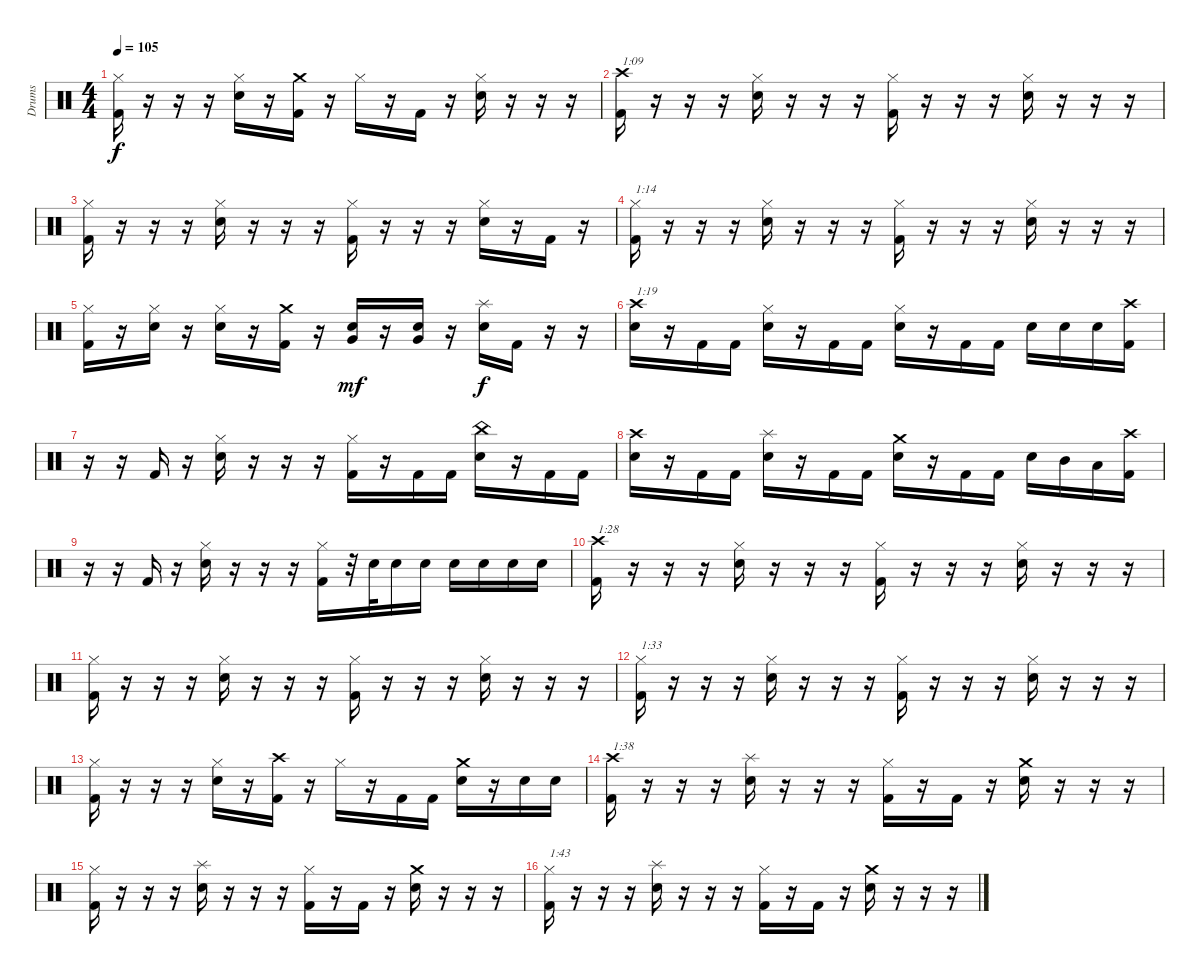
\track ("Drums" "Drums") {instrument percussion}
\staff {score}
\articulation defaults
\ts (4 4)
\tempo 105
\clef neutral
\ks c
("Hi-Hat (closed)" "Kick (hit) 2").16{dy f} r.16 r.16 r.16 ("Hi-Hat (closed)" "Electric Snare (hit)").16 r.16 ("Crash medium (hit)" "Kick (hit) 2").16 r.16 "Hi-Hat (closed)".16 r.16 "Kick (hit) 2".16 r.16 ("Hi-Hat (closed)" "Electric Snare (hit)").16 r.16 r.16 r.16 |
("Crash high (hit)" "Kick (hit) 2").16{txt "1:09"} r.16 r.16 r.16 ("Hi-Hat (closed)" "Electric Snare (hit)").16 r.16 r.16 r.16 ("Hi-Hat (closed)" "Kick (hit) 2").16 r.16 r.16 r.16 ("Hi-Hat (closed)" "Electric Snare (hit)").16 r.16 r.16 r.16 |
("Hi-Hat (closed)" "Kick (hit) 2").16 r.16 r.16 r.16 ("Hi-Hat (closed)" "Electric Snare (hit)").16 r.16 r.16 r.16 ("Hi-Hat (closed)" "Kick (hit) 2").16 r.16 r.16 r.16 ("Hi-Hat (closed)" "Electric Snare (hit)").16 r.16 "Kick (hit) 2".16 r.16 |
("Hi-Hat (closed)" "Kick (hit) 2").16{txt "1:14"} r.16 r.16 r.16 ("Hi-Hat (closed)" "Electric Snare (hit)").16 r.16 r.16 r.16 ("Hi-Hat (closed)" "Kick (hit) 2").16 r.16 r.16 r.16 ("Hi-Hat (closed)" "Electric Snare (hit)").16 r.16 r.16 r.16 |
("Hi-Hat (closed)" "Kick (hit) 2").16 r.16 ("Hi-Hat (closed)" "Electric Snare (hit)").16 r.16 ("Hi-Hat (closed)" "Electric Snare (hit)").16 r.16 ("Crash medium (hit)" "Kick (hit) 2").16 r.16 ("Very Low Tom (hit)" "Electric Snare (hit)").16{dy mf} r.16 ("Very Low Tom (hit)" "Electric Snare (hit)").16 r.16 ("Splash (hit)" "Electric Snare (hit)").16{dy f} "Kick (hit) 2".16 r.16 r.16 |
("Crash high (hit)" "Electric Snare (hit)").16{txt "1:19"} r.16 "Kick (hit) 2".16 "Kick (hit) 2".16 ("Hi-Hat (closed)" "Electric Snare (hit)").16 r.16 "Kick (hit) 2".16 "Kick (hit) 2".16 ("Hi-Hat (closed)" "Electric Snare (hit)").16 r.16 "Kick (hit) 2".16 "Kick (hit) 2".16 "Electric Snare (hit)".16 "Electric Snare (hit)".16 "Electric Snare (hit)".16 ("Crash high (hit)" "Kick (hit) 2").16 |
r.16 r.16 "Kick (hit) 2".16 r.16 ("Hi-Hat (closed)" "Electric Snare (hit)").16 r.16 r.16 r.16 ("Hi-Hat (closed)" "Kick (hit) 2").16 r.16 "Kick (hit) 2".16 "Kick (hit) 2".16 ("China (hit)" "Electric Snare (hit)").16 r.16 "Kick (hit) 2".16 "Kick (hit) 2".16 |
("Crash high (hit)" "Electric Snare (hit)").16 r.16 "Kick (hit) 2".16 "Kick (hit) 2".16 ("Splash (hit)" "Electric Snare (hit)").16 r.16 "Kick (hit) 2".16 "Kick (hit) 2".16 ("Crash medium (hit)" "Electric Snare (hit)").16 r.16 "Kick (hit) 2".16 "Kick (hit) 2".16 "Electric Snare (hit)".16 "Mid Tom (hit)".16 "Low Tom (hit)".16 ("Crash high (hit)" "Kick (hit) 2").16 |
r.16 r.16 "Kick (hit) 2".16 r.16 ("Hi-Hat (closed)" "Electric Snare (hit)").16 r.16 r.16 r.16 ("Hi-Hat (closed)" "Kick (hit) 2").16 r.32 "Electric Snare (hit)".32 "Electric Snare (hit)".16 "Electric Snare (hit)".16 "Electric Snare (hit)".16 "Electric Snare (hit)".16 "Electric Snare (hit)".16 "Electric Snare (hit)".16 |
("Crash high (hit)" "Kick (hit) 2").16{txt "1:28"} r.16 r.16 r.16 ("Hi-Hat (closed)" "Electric Snare (hit)").16 r.16 r.16 r.16 ("Hi-Hat (closed)" "Kick (hit) 2").16 r.16 r.16 r.16 ("Hi-Hat (closed)" "Electric Snare (hit)").16 r.16 r.16 r.16 |
("Hi-Hat (closed)" "Kick (hit) 2").16 r.16 r.16 r.16 ("Hi-Hat (closed)" "Electric Snare (hit)").16 r.16 r.16 r.16 ("Hi-Hat (closed)" "Kick (hit) 2").16 r.16 r.16 r.16 ("Hi-Hat (closed)" "Electric Snare (hit)").16 r.16 r.16 r.16 |
("Hi-Hat (closed)" "Kick (hit) 2").16{txt "1:33"} r.16 r.16 r.16 ("Hi-Hat (closed)" "Electric Snare (hit)").16 r.16 r.16 r.16 ("Hi-Hat (closed)" "Kick (hit) 2").16 r.16 r.16 r.16 ("Hi-Hat (closed)" "Electric Snare (hit)").16 r.16 r.16 r.16 |
("Hi-Hat (closed)" "Kick (hit) 2").16 r.16 r.16 r.16 ("Hi-Hat (closed)" "Electric Snare (hit)").16 r.16 ("Crash high (hit)" "Kick (hit) 2").16 r.16 "Hi-Hat (closed)".16 r.16 "Kick (hit) 2".16 "Kick (hit) 2".16 ("Crash medium (hit)" "Electric Snare (hit)").16 r.16 "Electric Snare (hit)".16 "Electric Snare (hit)".16 |
("Crash high (hit)" "Kick (hit) 2").16{txt "1:38"} r.16 r.16 r.16 ("Splash (hit)" "Electric Snare (hit)").16 r.16 r.16 r.16 ("Hi-Hat (closed)" "Kick (hit) 2").16 r.16 "Kick (hit) 2".16 r.16 ("Crash medium (hit)" "Electric Snare (hit)").16 r.16 r.16 r.16 |
("Hi-Hat (closed)" "Kick (hit) 2").16 r.16 r.16 r.16 ("Splash (hit)" "Electric Snare (hit)").16 r.16 r.16 r.16 ("Hi-Hat (closed)" "Kick (hit) 2").16 r.16 "Kick (hit) 2".16 r.16 ("Crash medium (hit)" "Electric Snare (hit)").16 r.16 r.16 r.16 |
("Hi-Hat (closed)" "Kick (hit) 2").16{txt "1:43"} r.16 r.16 r.16 ("Splash (hit)" "Electric Snare (hit)").16 r.16 r.16 r.16 ("Hi-Hat (closed)" "Kick (hit) 2").16 r.16 "Kick (hit) 2".16 r.16 ("Crash medium (hit)" "Electric Snare (hit)").16 r.16 r.16 r.16
